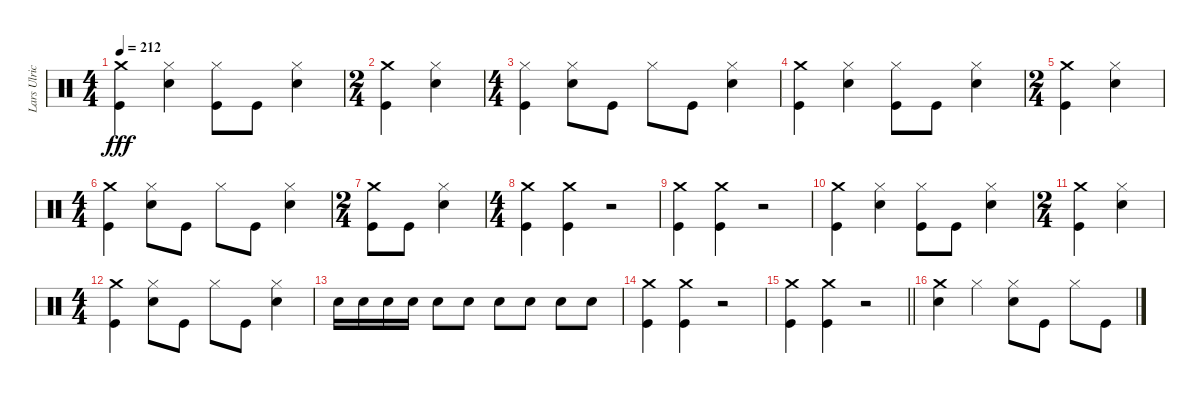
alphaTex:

\track ("Lars Ulrich" "Lars Ulric") {instrument percussion}
\staff {score}
\articulation defaults
\ts (4 4)
\tempo 212
\clef neutral
\ks c
("Crash medium (hit)" "Kick (hit)").4{dy fff} ("Snare (hit) 2" "Hi-Hat (closed)").4 ("Hi-Hat (closed)" "Kick (hit)").8 "Kick (hit)".8 ("Snare (hit) 2" "Hi-Hat (closed)").4 |
\ts (2 4)
("Crash medium (hit)" "Kick (hit)").4 ("Snare (hit) 2" "Hi-Hat (closed)").4 |
\ts (4 4)
("Kick (hit)" "Hi-Hat (closed)").4 ("Snare (hit) 2" "Hi-Hat (closed)").8 "Kick (hit)".8 "Hi-Hat (closed)".8 "Kick (hit)".8 ("Snare (hit) 2" "Hi-Hat (closed)").4 |
("Kick (hit)" "Crash medium (hit)").4 ("Snare (hit) 2" "Hi-Hat (closed)").4 ("Kick (hit)" "Hi-Hat (closed)").8 "Kick (hit)".8 ("Snare (hit) 2" "Hi-Hat (closed)").4 |
\ts (2 4)
("Kick (hit)" "Crash medium (hit)").4 ("Snare (hit) 2" "Hi-Hat (closed)").4 |
\ts (4 4)
("Kick (hit)" "Crash medium (hit)").4 ("Hi-Hat (closed)" "Snare (hit) 2").8 "Kick (hit)".8 "Hi-Hat (closed)".8 "Kick (hit)".8 ("Snare (hit) 2" "Hi-Hat (closed)").4 |
\ts (2 4)
("Kick (hit)" "Crash medium (hit)").8 "Kick (hit)".8 ("Snare (hit) 2" "Hi-Hat (closed)").4 |
\ts (4 4)
("Kick (hit)" "Crash medium (hit)").4 ("Crash medium (hit)" "Kick (hit)").4 r.2 |
("Kick (hit)" "Crash medium (hit)").4 ("Kick (hit)" "Crash medium (hit)").4 r.2 |
("Kick (hit)" "Crash medium (hit)").4 ("Snare (hit) 2" "Hi-Hat (closed)").4 ("Kick (hit)" "Hi-Hat (closed)").8 "Kick (hit)".8 ("Hi-Hat (closed)" "Snare (hit) 2").4 |
\ts (2 4)
("Kick (hit)" "Crash medium (hit)").4 ("Snare (hit) 2" "Hi-Hat (closed)").4 |
\ts (4 4)
("Kick (hit)" "Crash medium (hit)").4 ("Snare (hit) 2" "Hi-Hat (closed)").8 "Kick (hit)".8 "Hi-Hat (closed)".8 "Kick (hit)".8 ("Snare (hit) 2" "Hi-Hat (closed)").4 |
"Snare (hit) 2".16 "Snare (hit) 2".16 "Snare (hit) 2".16 "Snare (hit) 2".16 "Snare (hit) 2".8 "Snare (hit) 2".8 "Snare (hit) 2".8 "Snare (hit) 2".8 "Snare (hit) 2".8 "Snare (hit) 2".8 |
("Kick (hit)" "Crash medium (hit)").4 ("Crash medium (hit)" "Kick (hit)").4 r.2 |
\barLineRight lightlight
("Crash medium (hit)" "Kick (hit)").4 ("Crash medium (hit)" "Kick (hit)").4 r.2 |
("Snare (hit) 2" "Crash medium (hit)").4 "Hi-Hat (closed)".4 ("Snare (hit) 2" "Hi-Hat (closed)").8 "Kick (hit)".8 "Hi-Hat (closed)".8 "Kick (hit)".8
